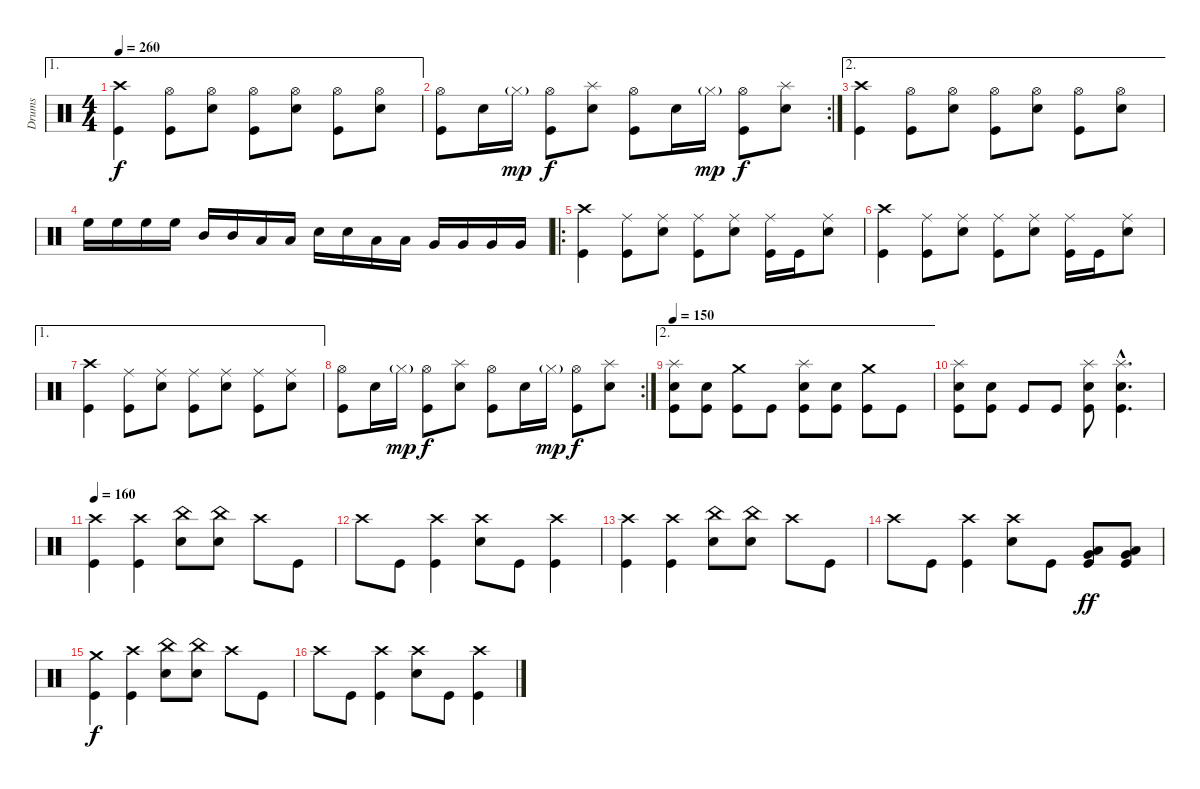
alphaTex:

\track ("Drums" "Drums") {instrument percussion}
\staff {score}
\articulation defaults
\ae 1
\ts (4 4)
\tempo 260
\clef neutral
\ks c
("Crash high (hit)" "Kick (hit)").4{dy f} ("Hi-Hat (open)" "Kick (hit)").8 ("Hi-Hat (open)" "Electric Snare (hit)").8 ("Hi-Hat (open)" "Kick (hit)").8 ("Hi-Hat (open)" "Electric Snare (hit)").8 ("Hi-Hat (open)" "Kick (hit)").8 ("Hi-Hat (open)" "Electric Snare (hit)").8 |
\rc 2
("Hi-Hat (open)" "Kick (hit)").8 "Electric Snare (hit)".16 "Hi-Hat (closed)"{g}.16{dy mp} ("Hi-Hat (open)" "Kick (hit)").8{dy f} ("Splash (hit)" "Electric Snare (hit)").8 ("Hi-Hat (open)" "Kick (hit)").8 "Electric Snare (hit)".16 "Hi-Hat (closed)"{g}.16{dy mp} ("Hi-Hat (open)" "Kick (hit)").8{dy f} ("Splash (hit)" "Electric Snare (hit)").8 |
\ae 2
("Crash high (hit)" "Kick (hit)").4 ("Hi-Hat (open)" "Kick (hit)").8 ("Hi-Hat (open)" "Electric Snare (hit)").8 ("Hi-Hat (open)" "Kick (hit)").8 ("Hi-Hat (open)" "Electric Snare (hit)").8 ("Hi-Hat (open)" "Kick (hit)").8 ("Hi-Hat (open)" "Electric Snare (hit)").8 |
"High Floor Tom (hit)".16 "High Floor Tom (hit)".16 "High Floor Tom (hit)".16 "High Floor Tom (hit)".16 "Mid Tom (hit)".16 "Mid Tom (hit)".16 "Low Tom (hit)".16 "Low Tom (hit)".16 "Electric Snare (hit)".16 "Electric Snare (hit)".16 "Low Tom (hit)".16 "Low Tom (hit)".16 "Very Low Tom (hit)".16 "Very Low Tom (hit)".16 "Very Low Tom (hit)".16 "Very Low Tom (hit)".16 |
\ro
("Crash high (hit)" "Kick (hit)").4 ("Ride (middle)" "Kick (hit)").8 ("Ride (middle)" "Electric Snare (hit)").8 ("Ride (middle)" "Kick (hit)").8 ("Ride (middle)" "Electric Snare (hit)").8 ("Ride (middle)" "Kick (hit)").16 "Kick (hit)".16 ("Ride (middle)" "Electric Snare (hit)").8 |
("Crash high (hit)" "Kick (hit)").4 ("Ride (middle)" "Kick (hit)").8 ("Ride (middle)" "Electric Snare (hit)").8 ("Ride (middle)" "Kick (hit)").8 ("Ride (middle)" "Electric Snare (hit)").8 ("Ride (middle)" "Kick (hit)").16 "Kick (hit)".16 ("Ride (middle)" "Electric Snare (hit)").8 |
\ae 1
("Crash high (hit)" "Kick (hit)").4 ("Ride (middle)" "Kick (hit)").8 ("Ride (middle)" "Electric Snare (hit)").8 ("Ride (middle)" "Kick (hit)").8 ("Ride (middle)" "Electric Snare (hit)").8 ("Ride (middle)" "Kick (hit)").8 ("Ride (middle)" "Electric Snare (hit)").8 |
\rc 2
("Hi-Hat (open)" "Kick (hit)").8 "Electric Snare (hit)".16 "Hi-Hat (closed)"{g}.16{dy mp} ("Hi-Hat (open)" "Kick (hit)").8{dy f} ("Splash (hit)" "Electric Snare (hit)").8 ("Hi-Hat (open)" "Kick (hit)").8 "Electric Snare (hit)".16 "Hi-Hat (closed)"{g}.16{dy mp} ("Hi-Hat (open)" "Kick (hit)").8{dy f} ("Splash (hit)" "Electric Snare (hit)").8 |
\ae 2
\tempo 150
("Splash (hit)" "Electric Snare (hit)" "Kick (hit)").8 ("Electric Snare (hit)" "Kick (hit)").8 ("Crash medium (hit)" "Kick (hit)").8 "Kick (hit)".8 ("Splash (hit)" "Electric Snare (hit)" "Kick (hit)").8 ("Electric Snare (hit)" "Kick (hit)").8 ("Crash medium (hit)" "Kick (hit)").8 "Kick (hit)".8 |
("Splash (hit)" "Electric Snare (hit)" "Kick (hit)").8 ("Electric Snare (hit)" "Kick (hit)").8 "Kick (hit)".8 "Kick (hit)".8 ("Splash (hit)" "Electric Snare (hit)" "Kick (hit)").8 ("Splash (hit)"{hac} "Electric Snare (hit)"{hac} "Kick (hit)"{hac}).4{d} |
\tempo 160
("Crash high (hit)" "Kick (hit)").4 ("Crash high (hit)" "Kick (hit)").4 ("China (hit)" "Electric Snare (hit)").8 ("China (hit)" "Electric Snare (hit)").8 "Crash high (hit)".8 "Kick (hit)".8 |
"Crash high (hit)".8 "Kick (hit)".8 ("Crash high (hit)" "Kick (hit)").4 ("Crash high (hit)" "Electric Snare (hit)").8 "Kick (hit)".8 ("Crash high (hit)" "Kick (hit)").4 |
("Crash high (hit)" "Kick (hit)").4 ("Crash high (hit)" "Kick (hit)").4 ("China (hit)" "Electric Snare (hit)").8 ("China (hit)" "Electric Snare (hit)").8 "Crash high (hit)".8 "Kick (hit)".8 |
"Crash high (hit)".8 "Kick (hit)".8 ("Crash high (hit)" "Kick (hit)").4 ("Crash high (hit)" "Electric Snare (hit)").8 "Kick (hit)".8 ("Low Floor Tom (hit)" "Very Low Tom (hit)" "Kick (hit)").8{dy ff} ("Low Floor Tom (hit)" "Very Low Tom (hit)" "Kick (hit)").8 |
("Crash medium (hit)" "Kick (hit)").4{dy f} ("Crash high (hit)" "Kick (hit)").4 ("China (hit)" "Electric Snare (hit)").8 ("China (hit)" "Electric Snare (hit)").8 "Crash high (hit)".8 "Kick (hit)".8 |
"Crash high (hit)".8 "Kick (hit)".8 ("Crash high (hit)" "Kick (hit)").4 ("Crash high (hit)" "Electric Snare (hit)").8 "Kick (hit)".8 ("Crash high (hit)" "Kick (hit)").4
